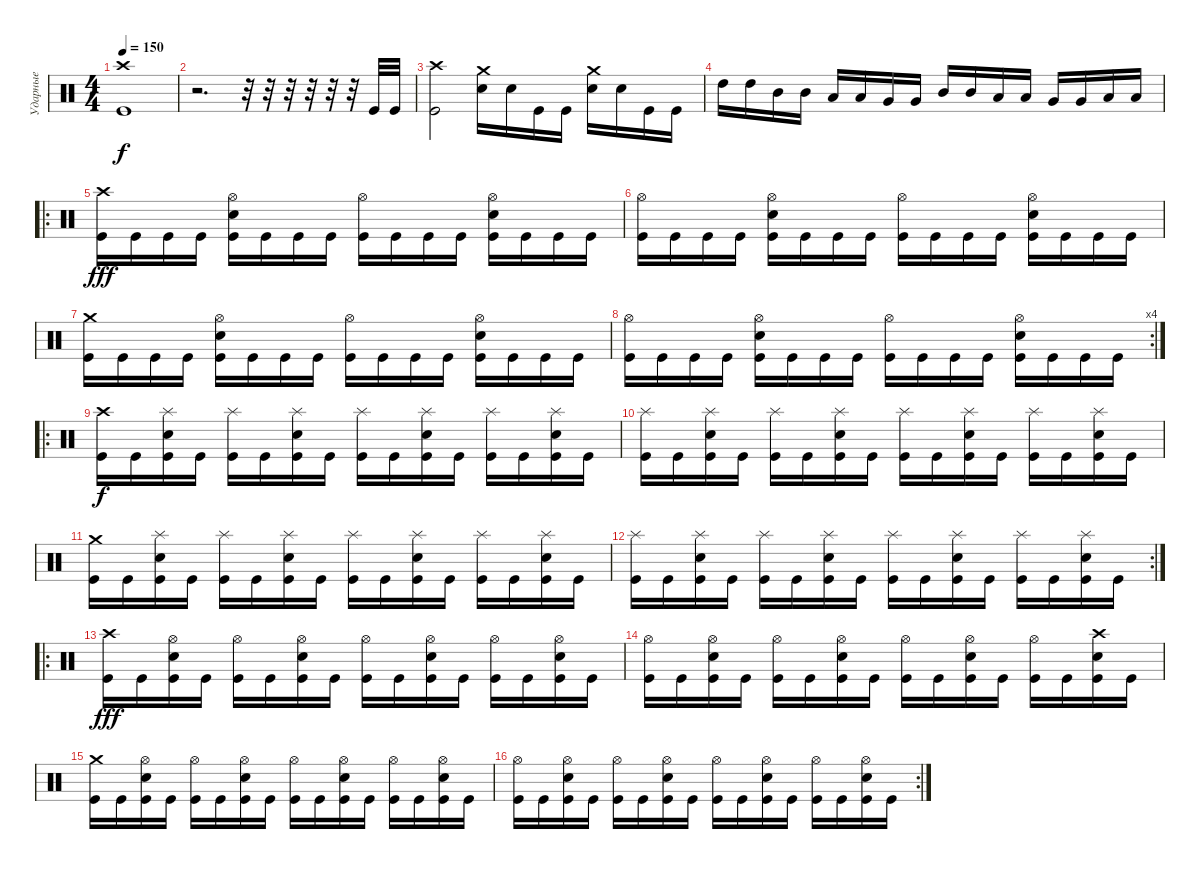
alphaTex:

\track ("Ударные" "Ударные") {instrument percussion}
\staff {score}
\articulation defaults
\ts (4 4)
\tempo 150
\clef neutral
\ks c
("Crash high (hit)" "Kick (hit)").1{dy f} |
r.2{d} r.32 r.32 r.32 r.32 r.32 r.32 "Kick (hit)".32 "Kick (hit)".32 |
("Crash high (hit)" "Kick (hit)").2 ("Snare (hit) 2" "Crash medium (hit)").16 "Snare (hit) 2".16 "Kick (hit)".16 "Kick (hit)".16 ("Snare (hit) 2" "Crash medium (hit)").16 "Snare (hit) 2".16 "Kick (hit)".16 "Kick (hit)".16 |
"High Tom (hit)".16 "High Tom (hit)".16 "Mid Tom (hit)".16 "Mid Tom (hit)".16 "Low Tom (hit)".16 "Low Tom (hit)".16 "Very Low Tom (hit)".16 "Very Low Tom (hit)".16 "Mid Tom (hit)".16 "Mid Tom (hit)".16 "Low Tom (hit)".16 "Low Tom (hit)".16 "Very Low Tom (hit)".16 "Very Low Tom (hit)".16 "Low Floor Tom (hit)".16 "Low Floor Tom (hit)".16 |
\ro
("Crash high (hit)" "Kick (hit)").16{dy fff} "Kick (hit)".16 "Kick (hit)".16 "Kick (hit)".16 ("Snare (hit) 2" "Hi-Hat (open)" "Kick (hit)").16 "Kick (hit)".16 "Kick (hit)".16 "Kick (hit)".16 ("Hi-Hat (open)" "Kick (hit)").16 "Kick (hit)".16 "Kick (hit)".16 "Kick (hit)".16 ("Snare (hit) 2" "Hi-Hat (open)" "Kick (hit)").16 "Kick (hit)".16 "Kick (hit)".16 "Kick (hit)".16 |
("Hi-Hat (open)" "Kick (hit)").16 "Kick (hit)".16 "Kick (hit)".16 "Kick (hit)".16 ("Snare (hit) 2" "Hi-Hat (open)" "Kick (hit)").16 "Kick (hit)".16 "Kick (hit)".16 "Kick (hit)".16 ("Hi-Hat (open)" "Kick (hit)").16 "Kick (hit)".16 "Kick (hit)".16 "Kick (hit)".16 ("Snare (hit) 2" "Hi-Hat (open)" "Kick (hit)").16 "Kick (hit)".16 "Kick (hit)".16 "Kick (hit)".16 |
("Crash medium (hit)" "Kick (hit)").16 "Kick (hit)".16 "Kick (hit)".16 "Kick (hit)".16 ("Snare (hit) 2" "Hi-Hat (open)" "Kick (hit)").16 "Kick (hit)".16 "Kick (hit)".16 "Kick (hit)".16 ("Hi-Hat (open)" "Kick (hit)").16 "Kick (hit)".16 "Kick (hit)".16 "Kick (hit)".16 ("Snare (hit) 2" "Hi-Hat (open)" "Kick (hit)").16 "Kick (hit)".16 "Kick (hit)".16 "Kick (hit)".16 |
\rc 4
("Hi-Hat (open)" "Kick (hit)").16 "Kick (hit)".16 "Kick (hit)".16 "Kick (hit)".16 ("Snare (hit) 2" "Hi-Hat (open)" "Kick (hit)").16 "Kick (hit)".16 "Kick (hit)".16 "Kick (hit)".16 ("Hi-Hat (open)" "Kick (hit)").16 "Kick (hit)".16 "Kick (hit)".16 "Kick (hit)".16 ("Snare (hit) 2" "Hi-Hat (open)" "Kick (hit)").16 "Kick (hit)".16 "Kick (hit)".16 "Kick (hit)".16 |
\ro
("Crash high (hit)" "Kick (hit)").16{dy f} "Kick (hit)".16 ("Snare (hit) 2" "Splash (hit)" "Kick (hit)").16 "Kick (hit)".16 ("Splash (hit)" "Kick (hit)").16 "Kick (hit)".16 ("Snare (hit) 2" "Splash (hit)" "Kick (hit)").16 "Kick (hit)".16 ("Splash (hit)" "Kick (hit)").16 "Kick (hit)".16 ("Snare (hit) 2" "Splash (hit)" "Kick (hit)").16 "Kick (hit)".16 ("Splash (hit)" "Kick (hit)").16 "Kick (hit)".16 ("Snare (hit) 2" "Splash (hit)" "Kick (hit)").16 "Kick (hit)".16 |
("Splash (hit)" "Kick (hit)").16 "Kick (hit)".16 ("Snare (hit) 2" "Splash (hit)" "Kick (hit)").16 "Kick (hit)".16 ("Splash (hit)" "Kick (hit)").16 "Kick (hit)".16 ("Snare (hit) 2" "Splash (hit)" "Kick (hit)").16 "Kick (hit)".16 ("Splash (hit)" "Kick (hit)").16 "Kick (hit)".16 ("Snare (hit) 2" "Splash (hit)" "Kick (hit)").16 "Kick (hit)".16 ("Splash (hit)" "Kick (hit)").16 "Kick (hit)".16 ("Snare (hit) 2" "Splash (hit)" "Kick (hit)").16 "Kick (hit)".16 |
("Crash medium (hit)" "Kick (hit)").16 "Kick (hit)".16 ("Snare (hit) 2" "Splash (hit)" "Kick (hit)").16 "Kick (hit)".16 ("Splash (hit)" "Kick (hit)").16 "Kick (hit)".16 ("Snare (hit) 2" "Splash (hit)" "Kick (hit)").16 "Kick (hit)".16 ("Splash (hit)" "Kick (hit)").16 "Kick (hit)".16 ("Snare (hit) 2" "Splash (hit)" "Kick (hit)").16 "Kick (hit)".16 ("Splash (hit)" "Kick (hit)").16 "Kick (hit)".16 ("Snare (hit) 2" "Splash (hit)" "Kick (hit)").16 "Kick (hit)".16 |
\rc 2
("Splash (hit)" "Kick (hit)").16 "Kick (hit)".16 ("Snare (hit) 2" "Splash (hit)" "Kick (hit)").16 "Kick (hit)".16 ("Splash (hit)" "Kick (hit)").16 "Kick (hit)".16 ("Snare (hit) 2" "Splash (hit)" "Kick (hit)").16 "Kick (hit)".16 ("Splash (hit)" "Kick (hit)").16 "Kick (hit)".16 ("Snare (hit) 2" "Splash (hit)" "Kick (hit)").16 "Kick (hit)".16 ("Splash (hit)" "Kick (hit)").16 "Kick (hit)".16 ("Snare (hit) 2" "Splash (hit)" "Kick (hit)").16 "Kick (hit)".16 |
\ro
("Crash high (hit)" "Kick (hit)").16{dy fff} "Kick (hit)".16 ("Snare (hit) 2" "Hi-Hat (open)" "Kick (hit)").16 "Kick (hit)".16 ("Hi-Hat (open)" "Kick (hit)").16 "Kick (hit)".16 ("Snare (hit) 2" "Hi-Hat (open)" "Kick (hit)").16 "Kick (hit)".16 ("Hi-Hat (open)" "Kick (hit)").16 "Kick (hit)".16 ("Snare (hit) 2" "Hi-Hat (open)" "Kick (hit)").16 "Kick (hit)".16 ("Hi-Hat (open)" "Kick (hit)").16 "Kick (hit)".16 ("Snare (hit) 2" "Hi-Hat (open)" "Kick (hit)").16 "Kick (hit)".16 |
("Hi-Hat (open)" "Kick (hit)").16 "Kick (hit)".16 ("Snare (hit) 2" "Hi-Hat (open)" "Kick (hit)").16 "Kick (hit)".16 ("Hi-Hat (open)" "Kick (hit)").16 "Kick (hit)".16 ("Snare (hit) 2" "Hi-Hat (open)" "Kick (hit)").16 "Kick (hit)".16 ("Hi-Hat (open)" "Kick (hit)").16 "Kick (hit)".16 ("Snare (hit) 2" "Hi-Hat (open)" "Kick (hit)").16 "Kick (hit)".16 ("Hi-Hat (open)" "Kick (hit)").16 "Kick (hit)".16 ("Snare (hit) 2" "Crash high (hit)" "Kick (hit)").16 "Kick (hit)".16 |
("Crash medium (hit)" "Kick (hit)").16 "Kick (hit)".16 ("Snare (hit) 2" "Hi-Hat (open)" "Kick (hit)").16 "Kick (hit)".16 ("Hi-Hat (open)" "Kick (hit)").16 "Kick (hit)".16 ("Snare (hit) 2" "Hi-Hat (open)" "Kick (hit)").16 "Kick (hit)".16 ("Hi-Hat (open)" "Kick (hit)").16 "Kick (hit)".16 ("Snare (hit) 2" "Hi-Hat (open)" "Kick (hit)").16 "Kick (hit)".16 ("Hi-Hat (open)" "Kick (hit)").16 "Kick (hit)".16 ("Snare (hit) 2" "Hi-Hat (open)" "Kick (hit)").16 "Kick (hit)".16 |
\rc 2
("Hi-Hat (open)" "Kick (hit)").16 "Kick (hit)".16 ("Snare (hit) 2" "Hi-Hat (open)" "Kick (hit)").16 "Kick (hit)".16 ("Hi-Hat (open)" "Kick (hit)").16 "Kick (hit)".16 ("Snare (hit) 2" "Hi-Hat (open)" "Kick (hit)").16 "Kick (hit)".16 ("Hi-Hat (open)" "Kick (hit)").16 "Kick (hit)".16 ("Snare (hit) 2" "Hi-Hat (open)" "Kick (hit)").16 "Kick (hit)".16 ("Hi-Hat (open)" "Kick (hit)").16 "Kick (hit)".16 ("Snare (hit) 2" "Hi-Hat (open)" "Kick (hit)").16 "Kick (hit)".16
